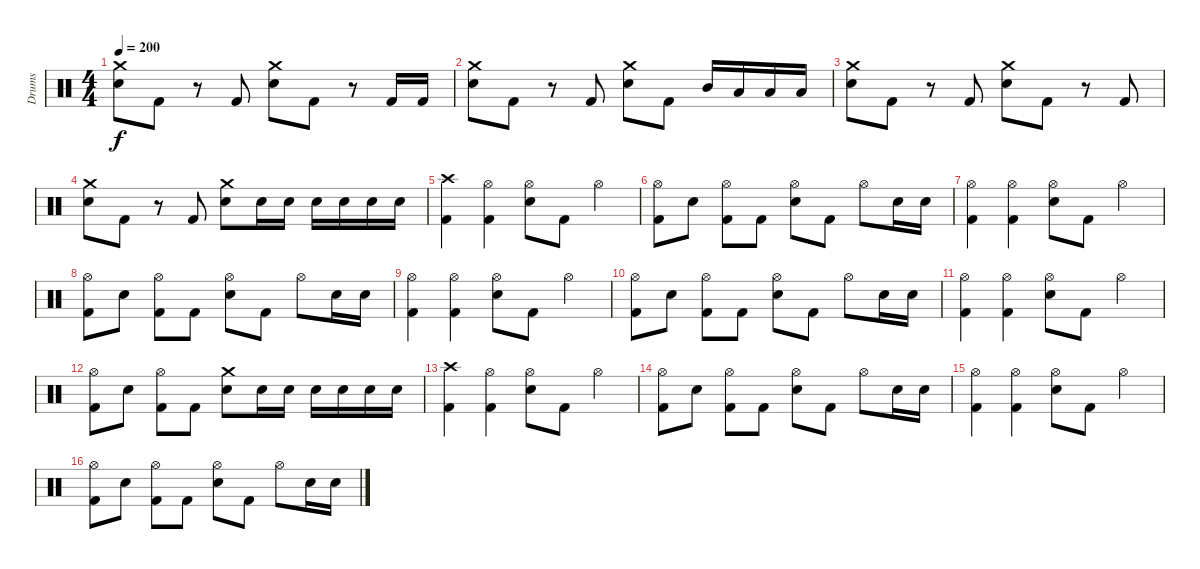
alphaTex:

\track ("Drums" "Drums") {instrument percussion}
\staff {score}
\articulation defaults
\ts (4 4)
\tempo 200
\clef neutral
\ks c
("Crash medium (hit)" "Electric Snare (hit)").8{dy f} "Kick (hit) 2".8 r.8 "Kick (hit) 2".8 ("Crash medium (hit)" "Electric Snare (hit)").8 "Kick (hit) 2".8 r.8 "Kick (hit) 2".16 "Kick (hit) 2".16 |
("Crash medium (hit)" "Electric Snare (hit)").8 "Kick (hit) 2".8 r.8 "Kick (hit) 2".8 ("Crash medium (hit)" "Electric Snare (hit)").8 "Kick (hit) 2".8 "Mid Tom (hit)".16 "Low Tom (hit)".16 "Low Floor Tom (hit)".16 "Low Floor Tom (hit)".16 |
("Crash medium (hit)" "Electric Snare (hit)").8 "Kick (hit) 2".8 r.8 "Kick (hit) 2".8 ("Crash medium (hit)" "Electric Snare (hit)").8 "Kick (hit) 2".8 r.8 "Kick (hit) 2".8 |
("Crash medium (hit)" "Electric Snare (hit)").8 "Kick (hit) 2".8 r.8 "Kick (hit) 2".8 ("Crash medium (hit)" "Electric Snare (hit)").8 "Electric Snare (hit)".16 "Electric Snare (hit)".16 "Electric Snare (hit)".16 "Electric Snare (hit)".16 "Electric Snare (hit)".16 "Electric Snare (hit)".16 |
("Crash high (hit)" "Kick (hit) 2").4 ("Hi-Hat (open)" "Kick (hit) 2").4 ("Hi-Hat (open)" "Electric Snare (hit)").8 "Kick (hit) 2".8 "Hi-Hat (open)".4 |
("Hi-Hat (open)" "Kick (hit) 2").8 "Electric Snare (hit)".8 ("Hi-Hat (open)" "Kick (hit) 2").8 "Kick (hit) 2".8 ("Hi-Hat (open)" "Electric Snare (hit)").8 "Kick (hit) 2".8 "Hi-Hat (open)".8 "Electric Snare (hit)".16 "Electric Snare (hit)".16 |
("Hi-Hat (open)" "Kick (hit) 2").4 ("Hi-Hat (open)" "Kick (hit) 2").4 ("Hi-Hat (open)" "Electric Snare (hit)").8 "Kick (hit) 2".8 "Hi-Hat (open)".4 |
("Hi-Hat (open)" "Kick (hit) 2").8 "Electric Snare (hit)".8 ("Hi-Hat (open)" "Kick (hit) 2").8 "Kick (hit) 2".8 ("Hi-Hat (open)" "Electric Snare (hit)").8 "Kick (hit) 2".8 "Hi-Hat (open)".8 "Electric Snare (hit)".16 "Electric Snare (hit)".16 |
("Hi-Hat (open)" "Kick (hit) 2").4 ("Hi-Hat (open)" "Kick (hit) 2").4 ("Hi-Hat (open)" "Electric Snare (hit)").8 "Kick (hit) 2".8 "Hi-Hat (open)".4 |
("Hi-Hat (open)" "Kick (hit) 2").8 "Electric Snare (hit)".8 ("Hi-Hat (open)" "Kick (hit) 2").8 "Kick (hit) 2".8 ("Hi-Hat (open)" "Electric Snare (hit)").8 "Kick (hit) 2".8 "Hi-Hat (open)".8 "Electric Snare (hit)".16 "Electric Snare (hit)".16 |
("Hi-Hat (open)" "Kick (hit) 2").4 ("Hi-Hat (open)" "Kick (hit) 2").4 ("Hi-Hat (open)" "Electric Snare (hit)").8 "Kick (hit) 2".8 "Hi-Hat (open)".4 |
("Hi-Hat (open)" "Kick (hit) 2").8 "Electric Snare (hit)".8 ("Hi-Hat (open)" "Kick (hit) 2").8 "Kick (hit) 2".8 ("Crash medium (hit)" "Electric Snare (hit)").8 "Electric Snare (hit)".16 "Electric Snare (hit)".16 "Electric Snare (hit)".16 "Electric Snare (hit)".16 "Electric Snare (hit)".16 "Electric Snare (hit)".16 |
("Crash high (hit)" "Kick (hit) 2").4 ("Hi-Hat (open)" "Kick (hit) 2").4 ("Hi-Hat (open)" "Electric Snare (hit)").8 "Kick (hit) 2".8 "Hi-Hat (open)".4 |
("Hi-Hat (open)" "Kick (hit) 2").8 "Electric Snare (hit)".8 ("Hi-Hat (open)" "Kick (hit) 2").8 "Kick (hit) 2".8 ("Hi-Hat (open)" "Electric Snare (hit)").8 "Kick (hit) 2".8 "Hi-Hat (open)".8 "Electric Snare (hit)".16 "Electric Snare (hit)".16 |
("Hi-Hat (open)" "Kick (hit) 2").4 ("Hi-Hat (open)" "Kick (hit) 2").4 ("Hi-Hat (open)" "Electric Snare (hit)").8 "Kick (hit) 2".8 "Hi-Hat (open)".4 |
("Hi-Hat (open)" "Kick (hit) 2").8 "Electric Snare (hit)".8 ("Hi-Hat (open)" "Kick (hit) 2").8 "Kick (hit) 2".8 ("Hi-Hat (open)" "Electric Snare (hit)").8 "Kick (hit) 2".8 "Hi-Hat (open)".8 "Electric Snare (hit)".16 "Electric Snare (hit)".16
